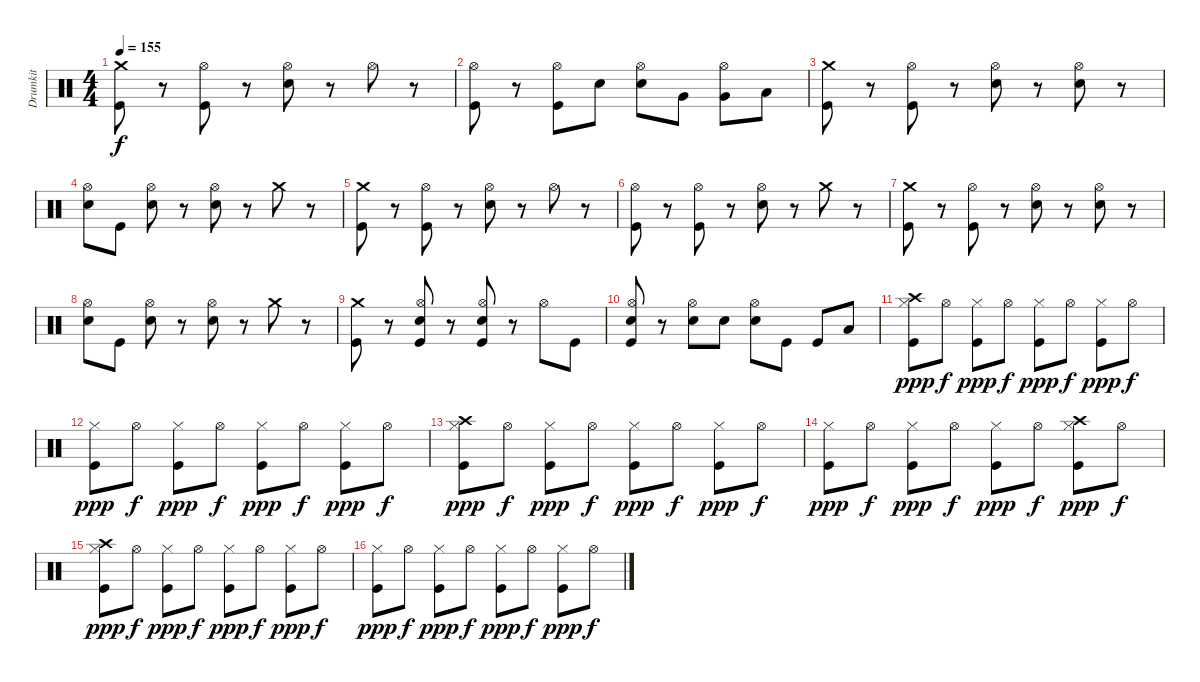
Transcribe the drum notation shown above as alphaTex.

\track ("Drumkit" "Drumkit") {instrument percussion}
\staff {score}
\articulation defaults
\ts (4 4)
\tempo 155
\clef neutral
\ks c
("Crash medium (hit)" "Kick (hit)").8{dy f} r.8 ("Hi-Hat (open)" "Kick (hit)").8 r.8 ("Hi-Hat (open)" "Snare (hit) 2").8 r.8 "Hi-Hat (open)".8 r.8 |
("Hi-Hat (open)" "Kick (hit)").8 r.8 ("Hi-Hat (open)" "Kick (hit)").8 "Snare (hit) 2".8 ("Hi-Hat (open)" "Snare (hit) 2").8 "Very Low Tom (hit)".8 ("Hi-Hat (open)" "Very Low Tom (hit)").8 "Low Floor Tom (hit)".8 |
("Crash medium (hit)" "Kick (hit)").8 r.8 ("Hi-Hat (open)" "Kick (hit)").8 r.8 ("Hi-Hat (open)" "Snare (hit) 2").8 r.8 ("Hi-Hat (open)" "Snare (hit) 2").8 r.8 |
("Hi-Hat (open)" "Snare (hit) 2").8 "Kick (hit)".8 ("Hi-Hat (open)" "Snare (hit) 2").8 r.8 ("Hi-Hat (open)" "Snare (hit) 2").8 r.8 "Crash medium (hit)".8 r.8 |
("Crash medium (hit)" "Kick (hit)").8 r.8 ("Hi-Hat (open)" "Kick (hit)").8 r.8 ("Hi-Hat (open)" "Snare (hit) 2").8 r.8 "Hi-Hat (open)".8 r.8 |
("Hi-Hat (open)" "Kick (hit)").8 r.8 ("Hi-Hat (open)" "Kick (hit)").8 r.8 ("Hi-Hat (open)" "Snare (hit) 2").8 r.8 "Crash medium (hit)".8 r.8 |
("Crash medium (hit)" "Kick (hit)").8 r.8 ("Hi-Hat (open)" "Kick (hit)").8 r.8 ("Hi-Hat (open)" "Snare (hit) 2").8 r.8 ("Hi-Hat (open)" "Snare (hit) 2").8 r.8 |
("Hi-Hat (open)" "Snare (hit) 2").8 "Kick (hit)".8 ("Hi-Hat (open)" "Snare (hit) 2").8 r.8 ("Hi-Hat (open)" "Snare (hit) 2").8 r.8 "Crash medium (hit)".8 r.8 |
("Crash medium (hit)" "Kick (hit)").8 r.8 ("Hi-Hat (open)" "Snare (hit) 2" "Kick (hit)").8 r.8 ("Hi-Hat (open)" "Snare (hit) 2" "Kick (hit)").8 r.8 "Hi-Hat (open)".8 "Kick (hit)".8 |
("Hi-Hat (open)" "Snare (hit) 2" "Kick (hit)").8 r.8 ("Hi-Hat (open)" "Snare (hit) 2").8 "Snare (hit) 2".8 ("Hi-Hat (open)" "Snare (hit) 2").8 "Kick (hit)".8 "Kick (hit)".8 "Low Floor Tom (hit)".8 |
("Hi-Hat (closed)" "Crash high (hit)" "Kick (hit)").8{dy ppp} "Hi-Hat (open)".8{dy f} ("Hi-Hat (closed)" "Kick (hit)").8{dy ppp} "Hi-Hat (open)".8{dy f} ("Hi-Hat (closed)" "Kick (hit)").8{dy ppp} "Hi-Hat (open)".8{dy f} ("Hi-Hat (closed)" "Kick (hit)").8{dy ppp} "Hi-Hat (open)".8{dy f} |
("Hi-Hat (closed)" "Kick (hit)").8{dy ppp} "Hi-Hat (open)".8{dy f} ("Hi-Hat (closed)" "Kick (hit)").8{dy ppp} "Hi-Hat (open)".8{dy f} ("Hi-Hat (closed)" "Kick (hit)").8{dy ppp} "Hi-Hat (open)".8{dy f} ("Hi-Hat (closed)" "Kick (hit)").8{dy ppp} "Hi-Hat (open)".8{dy f} |
("Hi-Hat (closed)" "Crash high (hit)" "Kick (hit)").8{dy ppp} "Hi-Hat (open)".8{dy f} ("Hi-Hat (closed)" "Kick (hit)").8{dy ppp} "Hi-Hat (open)".8{dy f} ("Hi-Hat (closed)" "Kick (hit)").8{dy ppp} "Hi-Hat (open)".8{dy f} ("Hi-Hat (closed)" "Kick (hit)").8{dy ppp} "Hi-Hat (open)".8{dy f} |
("Hi-Hat (closed)" "Kick (hit)").8{dy ppp} "Hi-Hat (open)".8{dy f} ("Hi-Hat (closed)" "Kick (hit)").8{dy ppp} "Hi-Hat (open)".8{dy f} ("Hi-Hat (closed)" "Kick (hit)").8{dy ppp} "Hi-Hat (open)".8{dy f} ("Hi-Hat (closed)" "Crash high (hit)" "Kick (hit)").8{dy ppp} "Hi-Hat (open)".8{dy f} |
("Hi-Hat (closed)" "Crash high (hit)" "Kick (hit)").8{dy ppp} "Hi-Hat (open)".8{dy f} ("Hi-Hat (closed)" "Kick (hit)").8{dy ppp} "Hi-Hat (open)".8{dy f} ("Hi-Hat (closed)" "Kick (hit)").8{dy ppp} "Hi-Hat (open)".8{dy f} ("Hi-Hat (closed)" "Kick (hit)").8{dy ppp} "Hi-Hat (open)".8{dy f} |
("Hi-Hat (closed)" "Kick (hit)").8{dy ppp} "Hi-Hat (open)".8{dy f} ("Hi-Hat (closed)" "Kick (hit)").8{dy ppp} "Hi-Hat (open)".8{dy f} ("Hi-Hat (closed)" "Kick (hit)").8{dy ppp} "Hi-Hat (open)".8{dy f} ("Hi-Hat (closed)" "Kick (hit)").8{dy ppp} "Hi-Hat (open)".8{dy f}
